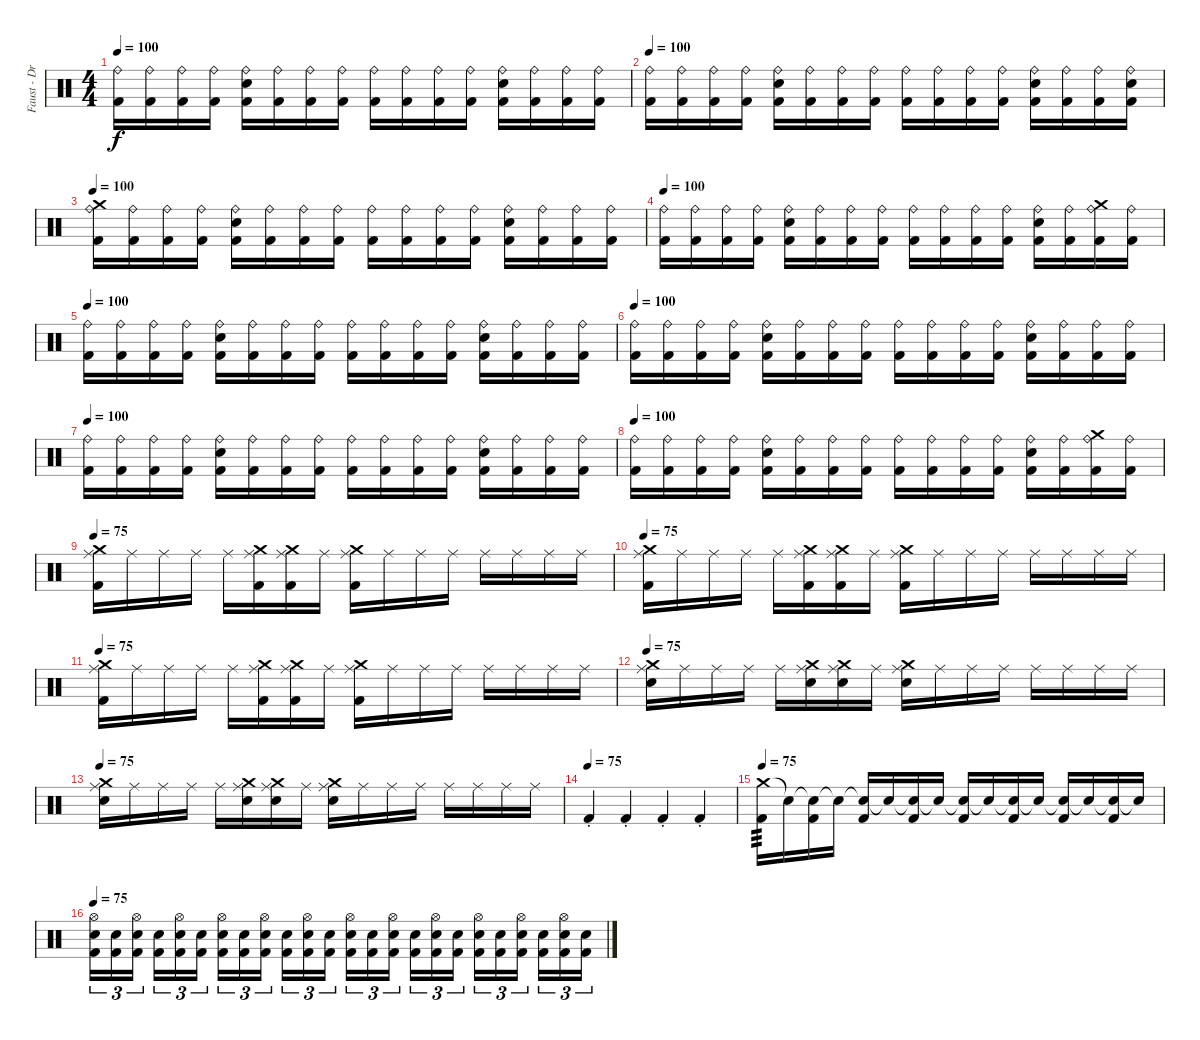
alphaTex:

\track ("Faust - Drums" "Faust - Dr") {instrument percussion}
\staff {score}
\articulation defaults
\ts (4 4)
\tempo 100
\clef neutral
\ks c
("Ride (bell)" "Kick (hit) 2").16{dy f} ("Ride (bell)" "Kick (hit) 2").16 ("Ride (bell)" "Kick (hit) 2").16 ("Ride (bell)" "Kick (hit) 2").16 ("Electric Snare (hit)" "Ride (bell)" "Kick (hit) 2").16 ("Ride (bell)" "Kick (hit) 2").16 ("Ride (bell)" "Kick (hit) 2").16 ("Ride (bell)" "Kick (hit) 2").16 ("Ride (bell)" "Kick (hit) 2").16 ("Ride (bell)" "Kick (hit) 2").16 ("Ride (bell)" "Kick (hit) 2").16 ("Ride (bell)" "Kick (hit) 2").16 ("Electric Snare (hit)" "Ride (bell)" "Kick (hit) 2").16 ("Ride (bell)" "Kick (hit) 2").16 ("Ride (bell)" "Kick (hit) 2").16 ("Ride (bell)" "Kick (hit) 2").16 |
\tempo 100
("Ride (bell)" "Kick (hit) 2").16 ("Ride (bell)" "Kick (hit) 2").16 ("Ride (bell)" "Kick (hit) 2").16 ("Ride (bell)" "Kick (hit) 2").16 ("Electric Snare (hit)" "Ride (bell)" "Kick (hit) 2").16 ("Ride (bell)" "Kick (hit) 2").16 ("Ride (bell)" "Kick (hit) 2").16 ("Ride (bell)" "Kick (hit) 2").16 ("Ride (bell)" "Kick (hit) 2").16 ("Ride (bell)" "Kick (hit) 2").16 ("Ride (bell)" "Kick (hit) 2").16 ("Ride (bell)" "Kick (hit) 2").16 ("Electric Snare (hit)" "Ride (bell)" "Kick (hit) 2").16 ("Ride (bell)" "Kick (hit) 2").16 ("Ride (bell)" "Kick (hit) 2").16 ("Electric Snare (hit)" "Ride (bell)" "Kick (hit) 2").16 |
\tempo 100
("Crash medium (hit)" "Ride (bell)" "Kick (hit) 2").16 ("Ride (bell)" "Kick (hit) 2").16 ("Ride (bell)" "Kick (hit) 2").16 ("Ride (bell)" "Kick (hit) 2").16 ("Electric Snare (hit)" "Ride (bell)" "Kick (hit) 2").16 ("Ride (bell)" "Kick (hit) 2").16 ("Ride (bell)" "Kick (hit) 2").16 ("Ride (bell)" "Kick (hit) 2").16 ("Ride (bell)" "Kick (hit) 2").16 ("Ride (bell)" "Kick (hit) 2").16 ("Ride (bell)" "Kick (hit) 2").16 ("Ride (bell)" "Kick (hit) 2").16 ("Electric Snare (hit)" "Ride (bell)" "Kick (hit) 2").16 ("Ride (bell)" "Kick (hit) 2").16 ("Ride (bell)" "Kick (hit) 2").16 ("Ride (bell)" "Kick (hit) 2").16 |
\tempo 100
("Ride (bell)" "Kick (hit) 2").16 ("Ride (bell)" "Kick (hit) 2").16 ("Ride (bell)" "Kick (hit) 2").16 ("Ride (bell)" "Kick (hit) 2").16 ("Electric Snare (hit)" "Ride (bell)" "Kick (hit) 2").16 ("Ride (bell)" "Kick (hit) 2").16 ("Ride (bell)" "Kick (hit) 2").16 ("Ride (bell)" "Kick (hit) 2").16 ("Ride (bell)" "Kick (hit) 2").16 ("Ride (bell)" "Kick (hit) 2").16 ("Ride (bell)" "Kick (hit) 2").16 ("Ride (bell)" "Kick (hit) 2").16 ("Electric Snare (hit)" "Ride (bell)" "Kick (hit) 2").16 ("Ride (bell)" "Kick (hit) 2").16 ("Crash medium (hit)" "Ride (bell)" "Kick (hit) 2").16 ("Ride (bell)" "Kick (hit) 2").16 |
\tempo 100
("Ride (bell)" "Kick (hit) 2").16 ("Ride (bell)" "Kick (hit) 2").16 ("Ride (bell)" "Kick (hit) 2").16 ("Ride (bell)" "Kick (hit) 2").16 ("Electric Snare (hit)" "Ride (bell)" "Kick (hit) 2").16 ("Ride (bell)" "Kick (hit) 2").16 ("Ride (bell)" "Kick (hit) 2").16 ("Ride (bell)" "Kick (hit) 2").16 ("Ride (bell)" "Kick (hit) 2").16 ("Ride (bell)" "Kick (hit) 2").16 ("Ride (bell)" "Kick (hit) 2").16 ("Ride (bell)" "Kick (hit) 2").16 ("Electric Snare (hit)" "Ride (bell)" "Kick (hit) 2").16 ("Ride (bell)" "Kick (hit) 2").16 ("Ride (bell)" "Kick (hit) 2").16 ("Ride (bell)" "Kick (hit) 2").16 |
\tempo 100
("Ride (bell)" "Kick (hit) 2").16 ("Ride (bell)" "Kick (hit) 2").16 ("Ride (bell)" "Kick (hit) 2").16 ("Ride (bell)" "Kick (hit) 2").16 ("Electric Snare (hit)" "Ride (bell)" "Kick (hit) 2").16 ("Ride (bell)" "Kick (hit) 2").16 ("Ride (bell)" "Kick (hit) 2").16 ("Ride (bell)" "Kick (hit) 2").16 ("Ride (bell)" "Kick (hit) 2").16 ("Ride (bell)" "Kick (hit) 2").16 ("Ride (bell)" "Kick (hit) 2").16 ("Ride (bell)" "Kick (hit) 2").16 ("Electric Snare (hit)" "Ride (bell)" "Kick (hit) 2").16 ("Ride (bell)" "Kick (hit) 2").16 ("Ride (bell)" "Kick (hit) 2").16 ("Ride (bell)" "Kick (hit) 2").16 |
\tempo 100
("Ride (bell)" "Kick (hit) 2").16 ("Ride (bell)" "Kick (hit) 2").16 ("Ride (bell)" "Kick (hit) 2").16 ("Ride (bell)" "Kick (hit) 2").16 ("Electric Snare (hit)" "Ride (bell)" "Kick (hit) 2").16 ("Ride (bell)" "Kick (hit) 2").16 ("Ride (bell)" "Kick (hit) 2").16 ("Ride (bell)" "Kick (hit) 2").16 ("Ride (bell)" "Kick (hit) 2").16 ("Ride (bell)" "Kick (hit) 2").16 ("Ride (bell)" "Kick (hit) 2").16 ("Ride (bell)" "Kick (hit) 2").16 ("Electric Snare (hit)" "Ride (bell)" "Kick (hit) 2").16 ("Ride (bell)" "Kick (hit) 2").16 ("Ride (bell)" "Kick (hit) 2").16 ("Ride (bell)" "Kick (hit) 2").16 |
\tempo 100
("Ride (bell)" "Kick (hit) 2").16 ("Ride (bell)" "Kick (hit) 2").16 ("Ride (bell)" "Kick (hit) 2").16 ("Ride (bell)" "Kick (hit) 2").16 ("Electric Snare (hit)" "Ride (bell)" "Kick (hit) 2").16 ("Ride (bell)" "Kick (hit) 2").16 ("Ride (bell)" "Kick (hit) 2").16 ("Ride (bell)" "Kick (hit) 2").16 ("Ride (bell)" "Kick (hit) 2").16 ("Ride (bell)" "Kick (hit) 2").16 ("Ride (bell)" "Kick (hit) 2").16 ("Ride (bell)" "Kick (hit) 2").16 ("Electric Snare (hit)" "Ride (bell)" "Kick (hit) 2").16 ("Ride (bell)" "Kick (hit) 2").16 ("Crash medium (hit)" "Ride (bell)" "Kick (hit) 2").16 ("Ride (bell)" "Kick (hit) 2").16 |
\tempo 75
("Crash medium (hit)" "Ride (middle)" "Kick (hit) 2").16 "Ride (middle)".16 "Ride (middle)".16 "Ride (middle)".16 "Ride (middle)".16 ("Crash medium (hit)" "Ride (middle)" "Kick (hit) 2").16 ("Crash medium (hit)" "Ride (middle)" "Kick (hit) 2").16 "Ride (middle)".16 ("Crash medium (hit)" "Ride (middle)" "Kick (hit) 2").16 "Ride (middle)".16 "Ride (middle)".16 "Ride (middle)".16 "Ride (middle)".16 "Ride (middle)".16 "Ride (middle)".16 "Ride (middle)".16 |
\tempo 75
("Crash medium (hit)" "Ride (middle)" "Kick (hit) 2").16 "Ride (middle)".16 "Ride (middle)".16 "Ride (middle)".16 "Ride (middle)".16 ("Crash medium (hit)" "Ride (middle)" "Kick (hit) 2").16 ("Crash medium (hit)" "Ride (middle)" "Kick (hit) 2").16 "Ride (middle)".16 ("Crash medium (hit)" "Ride (middle)" "Kick (hit) 2").16 "Ride (middle)".16 "Ride (middle)".16 "Ride (middle)".16 "Ride (middle)".16 "Ride (middle)".16 "Ride (middle)".16 "Ride (middle)".16 |
\tempo 75
("Crash medium (hit)" "Ride (middle)" "Kick (hit) 2").16 "Ride (middle)".16 "Ride (middle)".16 "Ride (middle)".16 "Ride (middle)".16 ("Crash medium (hit)" "Ride (middle)" "Kick (hit) 2").16 ("Crash medium (hit)" "Ride (middle)" "Kick (hit) 2").16 "Ride (middle)".16 ("Crash medium (hit)" "Ride (middle)" "Kick (hit) 2").16 "Ride (middle)".16 "Ride (middle)".16 "Ride (middle)".16 "Ride (middle)".16 "Ride (middle)".16 "Ride (middle)".16 "Ride (middle)".16 |
\tempo 75
("Crash medium (hit)" "Ride (middle)" "Electric Snare (hit)").16 "Ride (middle)".16 "Ride (middle)".16 "Ride (middle)".16 "Ride (middle)".16 ("Crash medium (hit)" "Ride (middle)" "Electric Snare (hit)").16 ("Crash medium (hit)" "Ride (middle)" "Electric Snare (hit)").16 "Ride (middle)".16 ("Crash medium (hit)" "Ride (middle)" "Electric Snare (hit)").16 "Ride (middle)".16 "Ride (middle)".16 "Ride (middle)".16 "Ride (middle)".16 "Ride (middle)".16 "Ride (middle)".16 "Ride (middle)".16 |
\tempo 75
("Crash medium (hit)" "Ride (middle)" "Electric Snare (hit)").16 "Ride (middle)".16 "Ride (middle)".16 "Ride (middle)".16 "Ride (middle)".16 ("Crash medium (hit)" "Ride (middle)" "Electric Snare (hit)").16 ("Crash medium (hit)" "Ride (middle)" "Electric Snare (hit)").16 "Ride (middle)".16 ("Crash medium (hit)" "Ride (middle)" "Electric Snare (hit)").16 "Ride (middle)".16 "Ride (middle)".16 "Ride (middle)".16 "Ride (middle)".16 "Ride (middle)".16 "Ride (middle)".16 "Ride (middle)".16 |
\tempo (75)
"Kick (hit) 2"{st}.4 "Kick (hit) 2"{st}.4 "Kick (hit) 2"{st}.4 "Kick (hit) 2"{st}.4 |
\tempo 75
("Crash medium (hit)" "Kick (hit) 2").16{tp 3} "Snare (hit)"{t}.16 ("Snare (hit)"{t} "Kick (hit) 2").16 "Snare (hit)"{t}.16 ("Snare (hit)"{t} "Kick (hit) 2").16 "Snare (hit)"{t}.16 ("Snare (hit)"{t} "Kick (hit) 2").16 "Snare (hit)"{t}.16 ("Snare (hit)"{t} "Kick (hit) 2").16 "Snare (hit)"{t}.16 ("Snare (hit)"{t} "Kick (hit) 2").16 "Snare (hit)"{t}.16 ("Snare (hit)"{t} "Kick (hit) 2").16 "Snare (hit)"{t}.16 ("Snare (hit)"{t} "Kick (hit) 2").16 "Snare (hit)"{t}.16 |
\tempo 75
("Electric Snare (hit)" "Hi-Hat (open)" "Kick (hit) 2").16{tu (3 2)} ("Electric Snare (hit)" "Kick (hit) 2").16{tu (3 2)} ("Electric Snare (hit)" "Hi-Hat (open)" "Kick (hit) 2").16{tu (3 2)} ("Electric Snare (hit)" "Kick (hit) 2").16{tu (3 2)} ("Electric Snare (hit)" "Hi-Hat (open)" "Kick (hit) 2").16{tu (3 2)} ("Electric Snare (hit)" "Kick (hit) 2").16{tu (3 2)} ("Electric Snare (hit)" "Hi-Hat (open)" "Kick (hit) 2").16{tu (3 2)} ("Electric Snare (hit)" "Kick (hit) 2").16{tu (3 2)} ("Electric Snare (hit)" "Hi-Hat (open)" "Kick (hit) 2").16{tu (3 2)} ("Electric Snare (hit)" "Kick (hit) 2").16{tu (3 2)} ("Electric Snare (hit)" "Hi-Hat (open)" "Kick (hit) 2").16{tu (3 2)} ("Electric Snare (hit)" "Kick (hit) 2").16{tu (3 2)} ("Electric Snare (hit)" "Hi-Hat (open)" "Kick (hit) 2").16{tu (3 2)} ("Electric Snare (hit)" "Kick (hit) 2").16{tu (3 2)} ("Electric Snare (hit)" "Hi-Hat (open)" "Kick (hit) 2").16{tu (3 2)} ("Electric Snare (hit)" "Kick (hit) 2").16{tu (3 2)} ("Electric Snare (hit)" "Hi-Hat (open)" "Kick (hit) 2").16{tu (3 2)} ("Electric Snare (hit)" "Kick (hit) 2").16{tu (3 2)} ("Electric Snare (hit)" "Hi-Hat (open)" "Kick (hit) 2").16{tu (3 2)} ("Electric Snare (hit)" "Kick (hit) 2").16{tu (3 2)} ("Electric Snare (hit)" "Hi-Hat (open)" "Kick (hit) 2").16{tu (3 2)} ("Electric Snare (hit)" "Kick (hit) 2").16{tu (3 2)} ("Electric Snare (hit)" "Hi-Hat (open)" "Kick (hit) 2").16{tu (3 2)} ("Electric Snare (hit)" "Kick (hit) 2").16{tu (3 2)}
